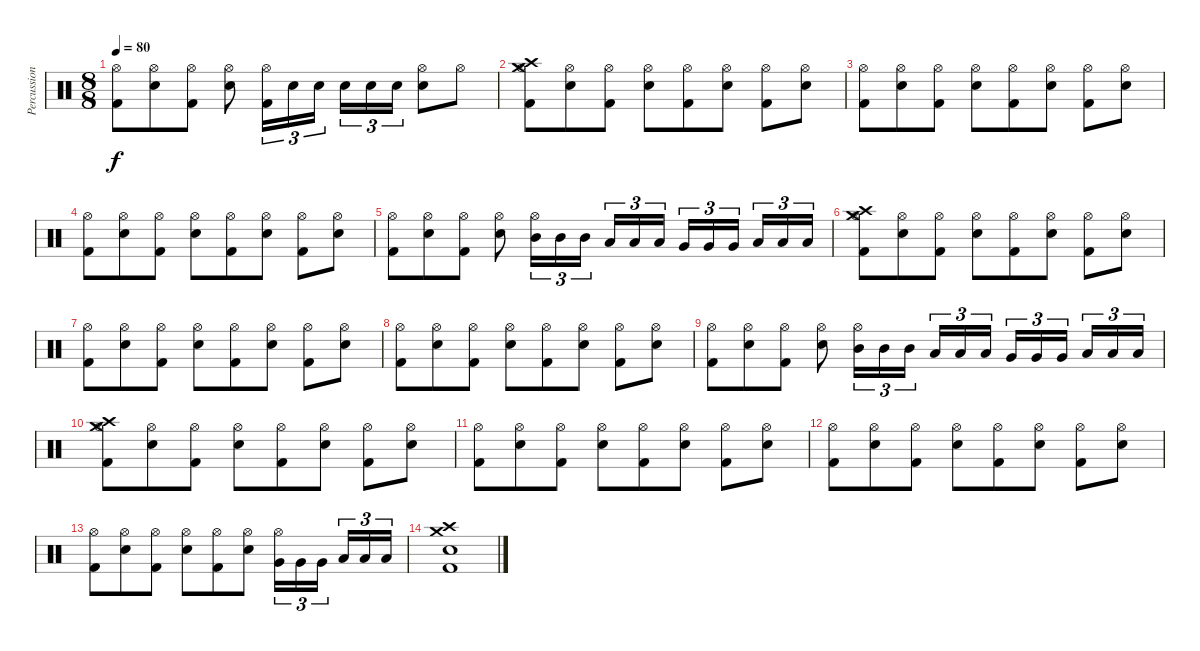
\track ("Percussion" "Percussion") {instrument percussion}
\staff {score}
\articulation defaults
\ts (8 8)
\tempo 80
\clef neutral
\ks c
("Hi-Hat (open)" "Kick (hit) 2").8{dy f} ("Hi-Hat (open)" "Electric Snare (hit)").8 ("Hi-Hat (open)" "Kick (hit) 2").8 ("Hi-Hat (open)" "Electric Snare (hit)").8 ("Hi-Hat (open)" "Kick (hit) 2").16{tu (3 2)} "Electric Snare (hit)".16{tu (3 2)} "Electric Snare (hit)".16{tu (3 2)} "Electric Snare (hit)".16{tu (3 2)} "Electric Snare (hit)".16{tu (3 2)} "Electric Snare (hit)".16{tu (3 2)} ("Hi-Hat (open)" "Electric Snare (hit)").8 "Hi-Hat (open)".8 |
("Crash high (hit)" "Hi-Hat (open)" "Kick (hit) 2" "Crash medium (hit)").8 ("Hi-Hat (open)" "Electric Snare (hit)").8 ("Hi-Hat (open)" "Kick (hit) 2").8 ("Hi-Hat (open)" "Electric Snare (hit)").8 ("Hi-Hat (open)" "Kick (hit) 2").8 ("Hi-Hat (open)" "Electric Snare (hit)").8 ("Hi-Hat (open)" "Kick (hit) 2").8 ("Hi-Hat (open)" "Electric Snare (hit)").8 |
("Hi-Hat (open)" "Kick (hit) 2").8 ("Hi-Hat (open)" "Electric Snare (hit)").8 ("Hi-Hat (open)" "Kick (hit) 2").8 ("Hi-Hat (open)" "Electric Snare (hit)").8 ("Hi-Hat (open)" "Kick (hit) 2").8 ("Hi-Hat (open)" "Electric Snare (hit)").8 ("Hi-Hat (open)" "Kick (hit) 2").8 ("Hi-Hat (open)" "Electric Snare (hit)").8 |
("Hi-Hat (open)" "Kick (hit) 2").8 ("Hi-Hat (open)" "Electric Snare (hit)").8 ("Hi-Hat (open)" "Kick (hit) 2").8 ("Hi-Hat (open)" "Electric Snare (hit)").8 ("Hi-Hat (open)" "Kick (hit) 2").8 ("Hi-Hat (open)" "Electric Snare (hit)").8 ("Hi-Hat (open)" "Kick (hit) 2").8 ("Hi-Hat (open)" "Electric Snare (hit)").8 |
("Hi-Hat (open)" "Kick (hit) 2").8 ("Hi-Hat (open)" "Electric Snare (hit)").8 ("Hi-Hat (open)" "Kick (hit) 2").8 ("Hi-Hat (open)" "Electric Snare (hit)").8 ("Hi-Hat (open)" "Mid Tom (hit)").16{tu (3 2)} "Mid Tom (hit)".16{tu (3 2)} "Mid Tom (hit)".16{tu (3 2)} "Low Tom (hit)".16{tu (3 2)} "Low Tom (hit)".16{tu (3 2)} "Low Tom (hit)".16{tu (3 2)} "Very Low Tom (hit)".16{tu (3 2)} "Very Low Tom (hit)".16{tu (3 2)} "Very Low Tom (hit)".16{tu (3 2)} "Low Floor Tom (hit)".16{tu (3 2)} "Low Floor Tom (hit)".16{tu (3 2)} "Low Floor Tom (hit)".16{tu (3 2)} |
("Crash high (hit)" "Hi-Hat (open)" "Kick (hit) 2" "Crash medium (hit)").8 ("Hi-Hat (open)" "Electric Snare (hit)").8 ("Hi-Hat (open)" "Kick (hit) 2").8 ("Hi-Hat (open)" "Electric Snare (hit)").8 ("Hi-Hat (open)" "Kick (hit) 2").8 ("Hi-Hat (open)" "Electric Snare (hit)").8 ("Hi-Hat (open)" "Kick (hit) 2").8 ("Hi-Hat (open)" "Electric Snare (hit)").8 |
("Hi-Hat (open)" "Kick (hit) 2").8 ("Hi-Hat (open)" "Electric Snare (hit)").8 ("Hi-Hat (open)" "Kick (hit) 2").8 ("Hi-Hat (open)" "Electric Snare (hit)").8 ("Hi-Hat (open)" "Kick (hit) 2").8 ("Hi-Hat (open)" "Electric Snare (hit)").8 ("Hi-Hat (open)" "Kick (hit) 2").8 ("Hi-Hat (open)" "Electric Snare (hit)").8 |
("Hi-Hat (open)" "Kick (hit) 2").8 ("Hi-Hat (open)" "Electric Snare (hit)").8 ("Hi-Hat (open)" "Kick (hit) 2").8 ("Hi-Hat (open)" "Electric Snare (hit)").8 ("Hi-Hat (open)" "Kick (hit) 2").8 ("Hi-Hat (open)" "Electric Snare (hit)").8 ("Hi-Hat (open)" "Kick (hit) 2").8 ("Hi-Hat (open)" "Electric Snare (hit)").8 |
("Hi-Hat (open)" "Kick (hit) 2").8 ("Hi-Hat (open)" "Electric Snare (hit)").8 ("Hi-Hat (open)" "Kick (hit) 2").8 ("Hi-Hat (open)" "Electric Snare (hit)").8 ("Hi-Hat (open)" "Mid Tom (hit)").16{tu (3 2)} "Mid Tom (hit)".16{tu (3 2)} "Mid Tom (hit)".16{tu (3 2)} "Low Tom (hit)".16{tu (3 2)} "Low Tom (hit)".16{tu (3 2)} "Low Tom (hit)".16{tu (3 2)} "Very Low Tom (hit)".16{tu (3 2)} "Very Low Tom (hit)".16{tu (3 2)} "Very Low Tom (hit)".16{tu (3 2)} "Low Floor Tom (hit)".16{tu (3 2)} "Low Floor Tom (hit)".16{tu (3 2)} "Low Floor Tom (hit)".16{tu (3 2)} |
("Crash high (hit)" "Hi-Hat (open)" "Kick (hit) 2" "Crash medium (hit)").8 ("Hi-Hat (open)" "Electric Snare (hit)").8 ("Hi-Hat (open)" "Kick (hit) 2").8 ("Hi-Hat (open)" "Electric Snare (hit)").8 ("Hi-Hat (open)" "Kick (hit) 2").8 ("Hi-Hat (open)" "Electric Snare (hit)").8 ("Hi-Hat (open)" "Kick (hit) 2").8 ("Hi-Hat (open)" "Electric Snare (hit)").8 |
("Hi-Hat (open)" "Kick (hit) 2").8 ("Hi-Hat (open)" "Electric Snare (hit)").8 ("Hi-Hat (open)" "Kick (hit) 2").8 ("Hi-Hat (open)" "Electric Snare (hit)").8 ("Hi-Hat (open)" "Kick (hit) 2").8 ("Hi-Hat (open)" "Electric Snare (hit)").8 ("Hi-Hat (open)" "Kick (hit) 2").8 ("Hi-Hat (open)" "Electric Snare (hit)").8 |
("Hi-Hat (open)" "Kick (hit) 2").8 ("Hi-Hat (open)" "Electric Snare (hit)").8 ("Hi-Hat (open)" "Kick (hit) 2").8 ("Hi-Hat (open)" "Electric Snare (hit)").8 ("Hi-Hat (open)" "Kick (hit) 2").8 ("Hi-Hat (open)" "Electric Snare (hit)").8 ("Hi-Hat (open)" "Kick (hit) 2").8 ("Hi-Hat (open)" "Electric Snare (hit)").8 |
("Hi-Hat (open)" "Kick (hit) 2").8 ("Hi-Hat (open)" "Electric Snare (hit)").8 ("Hi-Hat (open)" "Kick (hit) 2").8 ("Hi-Hat (open)" "Electric Snare (hit)").8 ("Hi-Hat (open)" "Kick (hit) 2").8 ("Hi-Hat (open)" "Electric Snare (hit)").8 ("Hi-Hat (open)" "Very Low Tom (hit)").16{tu (3 2)} "Very Low Tom (hit)".16{tu (3 2)} "Very Low Tom (hit)".16{tu (3 2)} "Low Floor Tom (hit)".16{tu (3 2)} "Low Floor Tom (hit)".16{tu (3 2)} "Low Floor Tom (hit)".16{tu (3 2)} |
("Kick (hit) 2" "Crash medium (hit)" "Electric Snare (hit)" "Crash high (hit)").1
